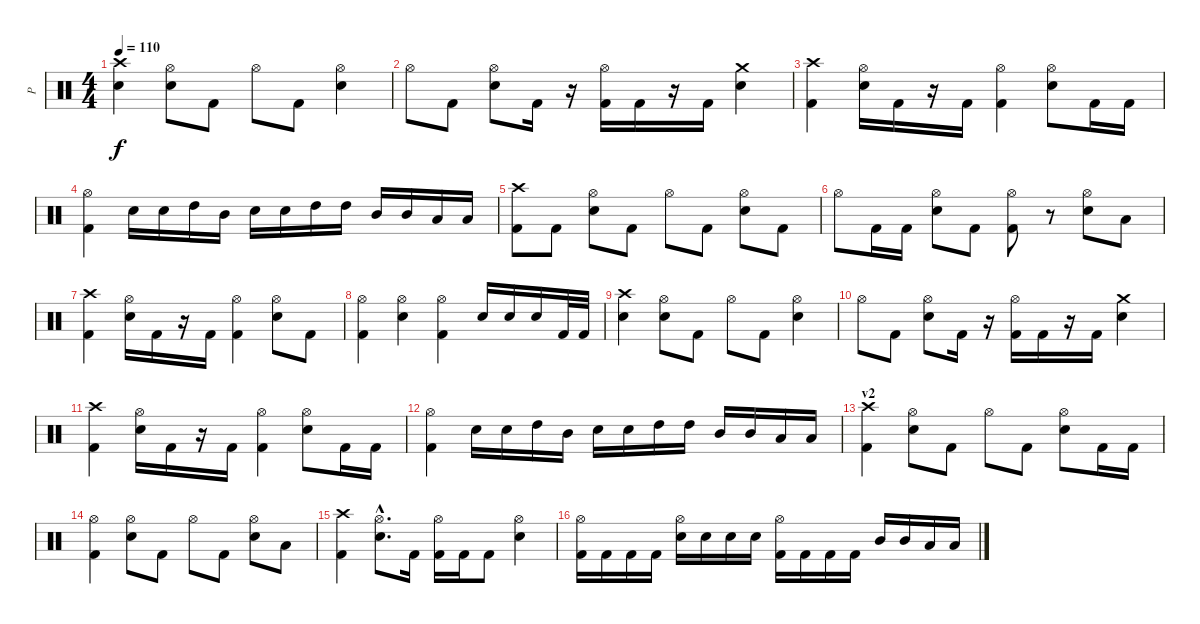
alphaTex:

\track ("P" "P") {instrument percussion}
\staff {score}
\articulation defaults
\ts (4 4)
\tempo 110
\clef neutral
\ks c
("Crash high (hit)" "Electric Snare (hit)").4{dy f} ("Hi-Hat (open)" "Electric Snare (hit)").8 "Kick (hit) 2".8 "Hi-Hat (open)".8 "Kick (hit) 2".8 ("Hi-Hat (open)" "Electric Snare (hit)").4 |
"Hi-Hat (open)".8 "Kick (hit) 2".8 ("Hi-Hat (open)" "Electric Snare (hit)").8 "Kick (hit) 2".16 r.16 ("Hi-Hat (open)" "Kick (hit) 2").16 "Kick (hit) 2".16 r.16 "Kick (hit) 2".16 ("Crash medium (hit)" "Electric Snare (hit)").4 |
("Crash high (hit)" "Kick (hit) 2").4 ("Hi-Hat (open)" "Electric Snare (hit)").16 "Kick (hit) 2".16 r.16 "Kick (hit) 2".16 ("Hi-Hat (open)" "Kick (hit) 2").4 ("Hi-Hat (open)" "Electric Snare (hit)").8 "Kick (hit) 2".16 "Kick (hit) 2".16 |
("Hi-Hat (open)" "Kick (hit) 2").4 "Electric Snare (hit)".16 "Electric Snare (hit)".16 "High Tom (hit)".16 "Mid Tom (hit)".16 "Electric Snare (hit)".16 "Electric Snare (hit)".16 "High Tom (hit)".16 "High Tom (hit)".16 "Mid Tom (hit)".16 "Mid Tom (hit)".16 "Low Tom (hit)".16 "Low Tom (hit)".16 |
("Crash high (hit)" "Kick (hit) 2").8 "Kick (hit) 2".8 ("Hi-Hat (open)" "Electric Snare (hit)").8 "Kick (hit) 2".8 "Hi-Hat (open)".8 "Kick (hit) 2".8 ("Hi-Hat (open)" "Electric Snare (hit)").8 "Kick (hit) 2".8 |
"Hi-Hat (open)".8 "Kick (hit) 2".16 "Kick (hit) 2".16 ("Hi-Hat (open)" "Electric Snare (hit)").8 "Kick (hit) 2".8 ("Hi-Hat (open)" "Kick (hit) 2").8 r.8 ("Hi-Hat (open)" "Electric Snare (hit)").8 "Low Tom (hit)".8 |
("Crash high (hit)" "Kick (hit) 2").4 ("Hi-Hat (open)" "Electric Snare (hit)").16 "Kick (hit) 2".16 r.16 "Kick (hit) 2".16 ("Hi-Hat (open)" "Kick (hit) 2").4 ("Hi-Hat (open)" "Electric Snare (hit)").8 "Kick (hit) 2".8 |
("Hi-Hat (open)" "Kick (hit) 2").4 ("Hi-Hat (open)" "Electric Snare (hit)").4 ("Hi-Hat (open)" "Kick (hit) 2").4 "Electric Snare (hit)".16 "Electric Snare (hit)".16 "Electric Snare (hit)".16 "Kick (hit) 2".32 "Kick (hit) 2".32 |
("Crash high (hit)" "Electric Snare (hit)").4 ("Hi-Hat (open)" "Electric Snare (hit)").8 "Kick (hit) 2".8 "Hi-Hat (open)".8 "Kick (hit) 2".8 ("Hi-Hat (open)" "Electric Snare (hit)").4 |
"Hi-Hat (open)".8 "Kick (hit) 2".8 ("Hi-Hat (open)" "Electric Snare (hit)").8 "Kick (hit) 2".16 r.16 ("Hi-Hat (open)" "Kick (hit) 2").16 "Kick (hit) 2".16 r.16 "Kick (hit) 2".16 ("Crash medium (hit)" "Electric Snare (hit)").4 |
("Crash high (hit)" "Kick (hit) 2").4 ("Hi-Hat (open)" "Electric Snare (hit)").16 "Kick (hit) 2".16 r.16 "Kick (hit) 2".16 ("Hi-Hat (open)" "Kick (hit) 2").4 ("Hi-Hat (open)" "Electric Snare (hit)").8 "Kick (hit) 2".16 "Kick (hit) 2".16 |
("Hi-Hat (open)" "Kick (hit) 2").4 "Electric Snare (hit)".16 "Electric Snare (hit)".16 "High Tom (hit)".16 "Mid Tom (hit)".16 "Electric Snare (hit)".16 "Electric Snare (hit)".16 "High Tom (hit)".16 "High Tom (hit)".16 "Mid Tom (hit)".16 "Mid Tom (hit)".16 "Low Tom (hit)".16 "Low Tom (hit)".16 |
\section ("" "v2")
("Crash high (hit)" "Kick (hit) 2").4 ("Hi-Hat (open)" "Electric Snare (hit)").8 "Kick (hit) 2".8 "Hi-Hat (open)".8 "Kick (hit) 2".8 ("Hi-Hat (open)" "Electric Snare (hit)").8 "Kick (hit) 2".16 "Kick (hit) 2".16 |
("Hi-Hat (open)" "Kick (hit) 2").4 ("Hi-Hat (open)" "Electric Snare (hit)").8 "Kick (hit) 2".8 "Hi-Hat (open)".8 "Kick (hit) 2".8 ("Hi-Hat (open)" "Electric Snare (hit)").8 "Low Tom (hit)".8 |
("Crash high (hit)" "Kick (hit) 2").4 ("Hi-Hat (open)"{hac} "Electric Snare (hit)"{hac}).8{d} "Kick (hit) 2".16 ("Hi-Hat (open)" "Kick (hit) 2").16 "Kick (hit) 2".16 "Kick (hit) 2".8 ("Hi-Hat (open)" "Electric Snare (hit)").4 |
("Hi-Hat (open)" "Kick (hit) 2").16 "Kick (hit) 2".16 "Kick (hit) 2".16 "Kick (hit) 2".16 ("Hi-Hat (open)" "Electric Snare (hit)").16 "Electric Snare (hit)".16 "Electric Snare (hit)".16 "Electric Snare (hit)".16 ("Hi-Hat (open)" "Kick (hit) 2").16 "Kick (hit) 2".16 "Kick (hit) 2".16 "Kick (hit) 2".16 "Mid Tom (hit)".16 "Mid Tom (hit)".16 "Low Tom (hit)".16 "Low Tom (hit)".16
